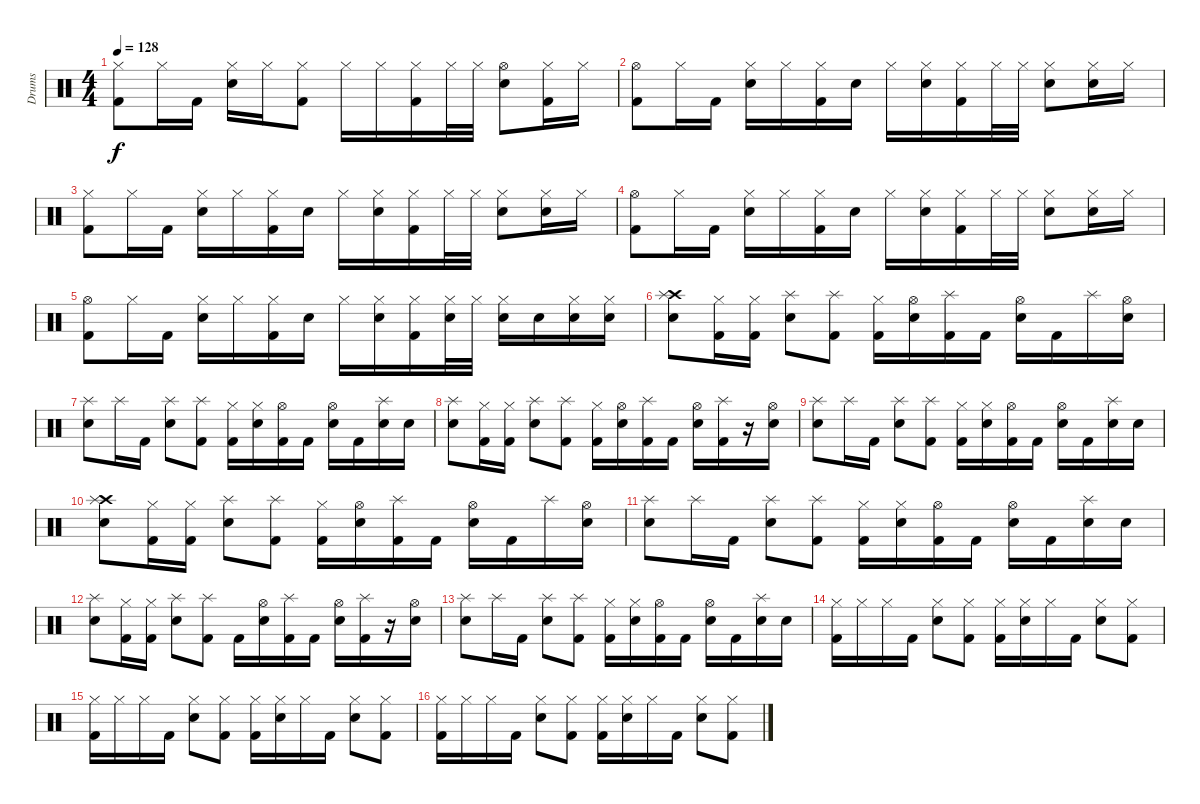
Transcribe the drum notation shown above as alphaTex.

\track ("Drums" "Drums") {instrument percussion}
\staff {score}
\articulation defaults
\ts (4 4)
\tempo 128
\clef neutral
\ks c
("Hi-Hat (closed)" "Kick (hit) 2").8{dy f} "Hi-Hat (closed)".16 "Kick (hit) 2".16 ("Hi-Hat (closed)" "Snare (hit) 2").16 "Hi-Hat (closed)".16 ("Hi-Hat (closed)" "Kick (hit) 2").8 "Hi-Hat (closed)".16 "Hi-Hat (closed)".16 ("Hi-Hat (closed)" "Kick (hit) 2").16 "Hi-Hat (closed)".32 "Hi-Hat (closed)".32 ("Hi-Hat (open)" "Snare (hit) 2").8 ("Hi-Hat (closed)" "Kick (hit) 2").16 "Hi-Hat (closed)".16 |
("Hi-Hat (open)" "Kick (hit) 2").8 "Hi-Hat (closed)".16 "Kick (hit) 2".16 ("Hi-Hat (closed)" "Snare (hit) 2").16 "Hi-Hat (closed)".16 ("Hi-Hat (closed)" "Kick (hit) 2").16 "Snare (hit) 2".16 "Hi-Hat (closed)".16 ("Hi-Hat (closed)" "Snare (hit) 2").16 ("Hi-Hat (closed)" "Kick (hit) 2").16 "Hi-Hat (closed)".32 "Hi-Hat (closed)".32 ("Hi-Hat (closed)" "Snare (hit) 2").8 ("Hi-Hat (closed)" "Snare (hit) 2").16 "Hi-Hat (closed)".16 |
("Hi-Hat (closed)" "Kick (hit) 2").8 "Hi-Hat (closed)".16 "Kick (hit) 2".16 ("Hi-Hat (closed)" "Snare (hit) 2").16 "Hi-Hat (closed)".16 ("Hi-Hat (closed)" "Kick (hit) 2").16 "Snare (hit) 2".16 "Hi-Hat (closed)".16 ("Hi-Hat (closed)" "Snare (hit) 2").16 ("Hi-Hat (closed)" "Kick (hit) 2").16 "Hi-Hat (closed)".32 "Hi-Hat (closed)".32 ("Hi-Hat (closed)" "Snare (hit) 2").8 ("Hi-Hat (closed)" "Snare (hit) 2").16 "Hi-Hat (closed)".16 |
("Hi-Hat (open)" "Kick (hit) 2").8 "Hi-Hat (closed)".16 "Kick (hit) 2".16 ("Hi-Hat (closed)" "Snare (hit) 2").16 "Hi-Hat (closed)".16 ("Hi-Hat (closed)" "Kick (hit) 2").16 "Snare (hit) 2".16 "Hi-Hat (closed)".16 ("Hi-Hat (closed)" "Snare (hit) 2").16 ("Hi-Hat (closed)" "Kick (hit) 2").16 "Hi-Hat (closed)".32 "Hi-Hat (closed)".32 ("Hi-Hat (closed)" "Snare (hit) 2").8 ("Hi-Hat (closed)" "Snare (hit) 2").16 "Hi-Hat (closed)".16 |
("Hi-Hat (open)" "Kick (hit) 2").8 "Hi-Hat (closed)".16 "Kick (hit) 2".16 ("Hi-Hat (closed)" "Snare (hit) 2").16 "Hi-Hat (closed)".16 ("Hi-Hat (closed)" "Kick (hit) 2").16 "Snare (hit) 2".16 "Hi-Hat (closed)".16 ("Hi-Hat (closed)" "Snare (hit) 2").16 ("Hi-Hat (closed)" "Kick (hit) 2").16 ("Hi-Hat (closed)" "Snare (hit) 2").32 "Hi-Hat (closed)".32 ("Hi-Hat (closed)" "Snare (hit) 2").16 "Snare (hit) 2".16 ("Hi-Hat (closed)" "Snare (hit) 2").16 ("Hi-Hat (closed)" "Snare (hit) 2").16 |
("Crash high (hit)" "Splash (hit)" "Snare (hit) 2").8 ("Hi-Hat (closed)" "Kick (hit) 2").16 ("Hi-Hat (closed)" "Kick (hit) 2").16 ("Splash (hit)" "Snare (hit) 2").8 ("Splash (hit)" "Kick (hit) 2").8 ("Hi-Hat (closed)" "Kick (hit) 2").16 ("Hi-Hat (open)" "Snare (hit) 2").16 ("Splash (hit)" "Kick (hit) 2").16 "Kick (hit) 2".16 ("Hi-Hat (open)" "Snare (hit) 2").16 "Kick (hit) 2".16 "Splash (hit)".16 ("Hi-Hat (open)" "Snare (hit) 2").16 |
("Splash (hit)" "Snare (hit) 2").8 "Splash (hit)".16 "Kick (hit) 2".16 ("Splash (hit)" "Snare (hit) 2").8 ("Splash (hit)" "Kick (hit) 2").8 ("Hi-Hat (closed)" "Kick (hit) 2").16 ("Hi-Hat (closed)" "Snare (hit) 2").16 ("Hi-Hat (open)" "Kick (hit) 2").16 "Kick (hit) 2".16 ("Hi-Hat (open)" "Snare (hit) 2").16 "Kick (hit) 2".16 ("Splash (hit)" "Snare (hit) 2").16 "Snare (hit) 2".16 |
("Splash (hit)" "Snare (hit) 2").8 ("Hi-Hat (closed)" "Kick (hit) 2").16 ("Hi-Hat (closed)" "Kick (hit) 2").16 ("Splash (hit)" "Snare (hit) 2").8 ("Splash (hit)" "Kick (hit) 2").8 ("Hi-Hat (closed)" "Kick (hit) 2").16 ("Hi-Hat (open)" "Snare (hit) 2").16 ("Splash (hit)" "Kick (hit) 2").16 "Kick (hit) 2".16 ("Hi-Hat (open)" "Snare (hit) 2").16 ("Splash (hit)" "Kick (hit) 2").16 r.16 ("Hi-Hat (open)" "Snare (hit) 2").16 |
("Splash (hit)" "Snare (hit) 2").8 "Splash (hit)".16 "Kick (hit) 2".16 ("Splash (hit)" "Snare (hit) 2").8 ("Splash (hit)" "Kick (hit) 2").8 ("Hi-Hat (closed)" "Kick (hit) 2").16 ("Hi-Hat (closed)" "Snare (hit) 2").16 ("Hi-Hat (open)" "Kick (hit) 2").16 "Kick (hit) 2".16 ("Hi-Hat (open)" "Snare (hit) 2").16 "Kick (hit) 2".16 ("Splash (hit)" "Snare (hit) 2").16 "Snare (hit) 2".16 |
("Crash high (hit)" "Splash (hit)" "Snare (hit) 2").8 ("Hi-Hat (closed)" "Kick (hit) 2").16 ("Hi-Hat (closed)" "Kick (hit) 2").16 ("Splash (hit)" "Snare (hit) 2").8 ("Splash (hit)" "Kick (hit) 2").8 ("Hi-Hat (closed)" "Kick (hit) 2").16 ("Hi-Hat (open)" "Snare (hit) 2").16 ("Splash (hit)" "Kick (hit) 2").16 "Kick (hit) 2".16 ("Hi-Hat (open)" "Snare (hit) 2").16 "Kick (hit) 2".16 "Splash (hit)".16 ("Hi-Hat (open)" "Snare (hit) 2").16 |
("Splash (hit)" "Snare (hit) 2").8 "Splash (hit)".16 "Kick (hit) 2".16 ("Splash (hit)" "Snare (hit) 2").8 ("Splash (hit)" "Kick (hit) 2").8 ("Hi-Hat (closed)" "Kick (hit) 2").16 ("Hi-Hat (closed)" "Snare (hit) 2").16 ("Hi-Hat (open)" "Kick (hit) 2").16 "Kick (hit) 2".16 ("Hi-Hat (open)" "Snare (hit) 2").16 "Kick (hit) 2".16 ("Splash (hit)" "Snare (hit) 2").16 "Snare (hit) 2".16 |
("Splash (hit)" "Snare (hit) 2").8 ("Hi-Hat (closed)" "Kick (hit) 2").16 ("Hi-Hat (closed)" "Kick (hit) 2").16 ("Splash (hit)" "Snare (hit) 2").8 ("Splash (hit)" "Kick (hit) 2").8 "Kick (hit) 2".16 ("Hi-Hat (open)" "Snare (hit) 2").16 ("Splash (hit)" "Kick (hit) 2").16 "Kick (hit) 2".16 ("Hi-Hat (open)" "Snare (hit) 2").16 ("Splash (hit)" "Kick (hit) 2").16 r.16 ("Hi-Hat (open)" "Snare (hit) 2").16 |
("Splash (hit)" "Snare (hit) 2").8 "Splash (hit)".16 "Kick (hit) 2".16 ("Splash (hit)" "Snare (hit) 2").8 ("Splash (hit)" "Kick (hit) 2").8 ("Hi-Hat (closed)" "Kick (hit) 2").16 ("Hi-Hat (closed)" "Snare (hit) 2").16 ("Hi-Hat (open)" "Kick (hit) 2").16 "Kick (hit) 2".16 ("Hi-Hat (open)" "Snare (hit) 2").16 "Kick (hit) 2".16 ("Splash (hit)" "Snare (hit) 2").16 "Snare (hit) 2".16 |
("Hi-Hat (closed)" "Kick (hit) 2").16 "Hi-Hat (closed)".16 "Hi-Hat (closed)".16 "Kick (hit) 2".16 ("Hi-Hat (closed)" "Snare (hit) 2").8 ("Hi-Hat (closed)" "Kick (hit) 2").8 ("Hi-Hat (closed)" "Kick (hit) 2").16 ("Hi-Hat (closed)" "Snare (hit) 2").16 "Hi-Hat (closed)".16 "Kick (hit) 2".16 ("Hi-Hat (closed)" "Snare (hit) 2").8 ("Hi-Hat (closed)" "Kick (hit) 2").8 |
("Hi-Hat (closed)" "Kick (hit) 2").16 "Hi-Hat (closed)".16 "Hi-Hat (closed)".16 "Kick (hit) 2".16 ("Hi-Hat (closed)" "Snare (hit) 2").8 ("Hi-Hat (closed)" "Kick (hit) 2").8 ("Hi-Hat (closed)" "Kick (hit) 2").16 ("Hi-Hat (closed)" "Snare (hit) 2").16 "Hi-Hat (closed)".16 "Kick (hit) 2".16 ("Hi-Hat (closed)" "Snare (hit) 2").8 ("Hi-Hat (closed)" "Kick (hit) 2").8 |
("Hi-Hat (closed)" "Kick (hit) 2").16 "Hi-Hat (closed)".16 "Hi-Hat (closed)".16 "Kick (hit) 2".16 ("Hi-Hat (closed)" "Snare (hit) 2").8 ("Hi-Hat (closed)" "Kick (hit) 2").8 ("Hi-Hat (closed)" "Kick (hit) 2").16 ("Hi-Hat (closed)" "Snare (hit) 2").16 "Hi-Hat (closed)".16 "Kick (hit) 2".16 ("Hi-Hat (closed)" "Snare (hit) 2").8 ("Hi-Hat (closed)" "Kick (hit) 2").8
